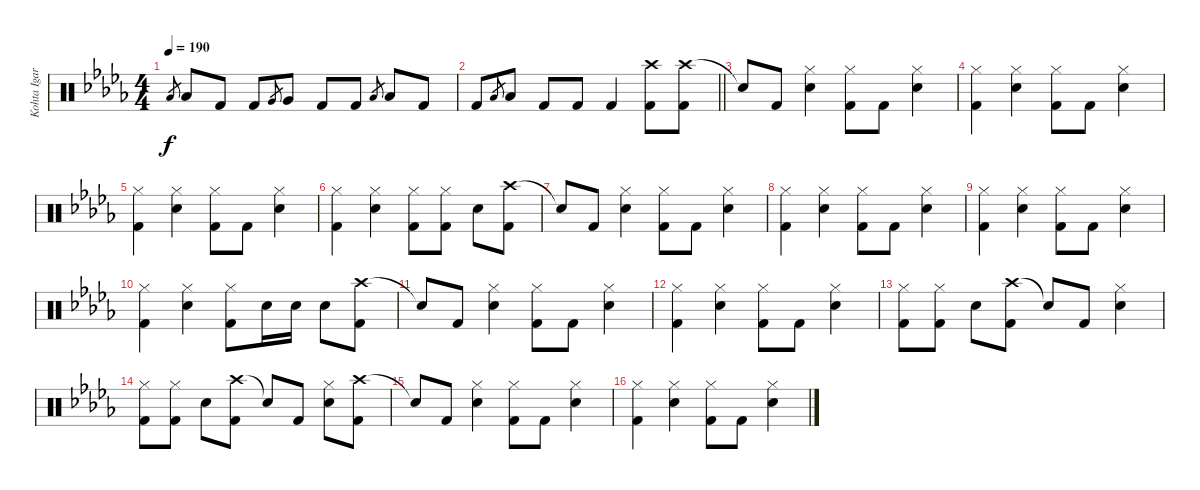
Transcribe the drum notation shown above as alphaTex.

\track ("Kohta Igarashi" "Kohta Igar") {instrument percussion}
\staff {score}
\articulation defaults
\ts (4 4)
\tempo 190
\clef neutral
\ks db "Low Tom (hit)".8{gr dy f} "Low Tom (hit)".8 "Kick (hit) 2".8 "Kick (hit) 2".8 "Very Low Tom (hit)".8{gr} "Very Low Tom (hit)".8 "Kick (hit) 2".8 "Kick (hit) 2".8 "Low Floor Tom (hit)".8{gr} "Low Floor Tom (hit)".8 "Kick (hit) 2".8
|
\barLineRight lightlight "Kick (hit) 2".8 "Low Floor Tom (hit)".8{gr} "Low Floor Tom (hit)".8 "Kick (hit) 2".8 "Kick (hit) 2".8 "Kick (hit) 2".4
("Crash high (hit)" "Kick (hit) 2").8 ("Crash high (hit)" "Kick (hit) 2").8 |
"Snare (hit)"{t}.8 "Kick (hit) 2".8 ("Hi-Hat (closed)" "Electric Snare (hit)").4 ("Hi-Hat (closed)" "Kick (hit) 2").8 "Kick (hit) 2".8 ("Hi-Hat (closed)" "Electric Snare (hit)").4 |
("Hi-Hat (closed)" "Kick (hit) 2").4 ("Hi-Hat (closed)" "Electric Snare (hit)").4 ("Hi-Hat (closed)" "Kick (hit) 2").8 "Kick (hit) 2".8 ("Hi-Hat (closed)" "Electric Snare (hit)").4 |
("Hi-Hat (closed)" "Kick (hit) 2").4 ("Hi-Hat (closed)" "Electric Snare (hit)").4 ("Hi-Hat (closed)" "Kick (hit) 2").8 "Kick (hit) 2".8 ("Hi-Hat (closed)" "Electric Snare (hit)").4 |
("Hi-Hat (closed)" "Kick (hit) 2").4 ("Hi-Hat (closed)" "Electric Snare (hit)").4 ("Hi-Hat (closed)" "Kick (hit) 2").8 ("Hi-Hat (closed)" "Kick (hit) 2").8 "Electric Snare (hit)".8 ("Crash high (hit)" "Kick (hit) 2").8 |
"Snare (hit)"{t}.8 "Kick (hit) 2".8 ("Hi-Hat (closed)" "Electric Snare (hit)").4 ("Hi-Hat (closed)" "Kick (hit) 2").8 "Kick (hit) 2".8 ("Hi-Hat (closed)" "Electric Snare (hit)").4 |
("Hi-Hat (closed)" "Kick (hit) 2").4 ("Hi-Hat (closed)" "Electric Snare (hit)").4 ("Hi-Hat (closed)" "Kick (hit) 2").8 "Kick (hit) 2".8 ("Hi-Hat (closed)" "Electric Snare (hit)").4 |
("Hi-Hat (closed)" "Kick (hit) 2").4 ("Hi-Hat (closed)" "Electric Snare (hit)").4 ("Hi-Hat (closed)" "Kick (hit) 2").8 "Kick (hit) 2".8 ("Hi-Hat (closed)" "Electric Snare (hit)").4 |
("Hi-Hat (closed)" "Kick (hit) 2").4 ("Hi-Hat (closed)" "Electric Snare (hit)").4 ("Hi-Hat (closed)" "Kick (hit) 2").8 "Electric Snare (hit)".16 "Electric Snare (hit)".16 "Electric Snare (hit)".8 ("Crash high (hit)" "Kick (hit) 2").8 |
"Snare (hit)"{t}.8 "Kick (hit) 2".8 ("Hi-Hat (closed)" "Electric Snare (hit)").4 ("Hi-Hat (closed)" "Kick (hit) 2").8 "Kick (hit) 2".8 ("Hi-Hat (closed)" "Electric Snare (hit)").4 |
("Hi-Hat (closed)" "Kick (hit) 2").4 ("Hi-Hat (closed)" "Electric Snare (hit)").4 ("Hi-Hat (closed)" "Kick (hit) 2").8 "Kick (hit) 2".8 ("Hi-Hat (closed)" "Electric Snare (hit)").4 |
("Hi-Hat (closed)" "Kick (hit) 2").8 ("Hi-Hat (closed)" "Kick (hit) 2").8 "Electric Snare (hit)".8 ("Crash high (hit)" "Kick (hit) 2").8 "Snare (hit)"{t}.8 "Kick (hit) 2".8 ("Hi-Hat (closed)" "Electric Snare (hit)").4 |
("Hi-Hat (closed)" "Kick (hit) 2").8 ("Hi-Hat (closed)" "Kick (hit) 2").8 "Electric Snare (hit)".8 ("Crash high (hit)" "Kick (hit) 2").8 "Snare (hit)"{t}.8 "Kick (hit) 2".8 ("Hi-Hat (closed)" "Electric Snare (hit)").8 ("Crash high (hit)" "Kick (hit) 2").8 |
"Snare (hit)"{t}.8 "Kick (hit) 2".8 ("Hi-Hat (closed)" "Electric Snare (hit)").4 ("Hi-Hat (closed)" "Kick (hit) 2").8 "Kick (hit) 2".8 ("Hi-Hat (closed)" "Electric Snare (hit)").4 |
("Hi-Hat (closed)" "Kick (hit) 2").4 ("Hi-Hat (closed)" "Electric Snare (hit)").4 ("Hi-Hat (closed)" "Kick (hit) 2").8 "Kick (hit) 2".8 ("Hi-Hat (closed)" "Electric Snare (hit)").4
